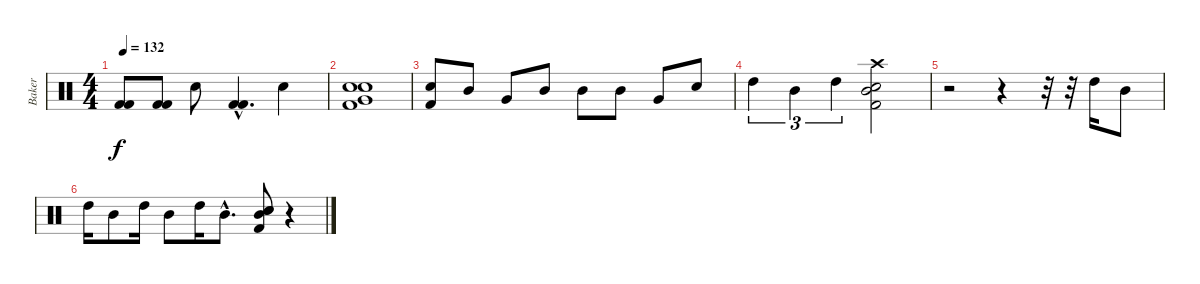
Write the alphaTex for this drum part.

\track ("Baker" "Baker") {instrument percussion}
\staff {score}
\articulation defaults
\ts (4 4)
\tempo 132
\clef neutral
\ks c
("Kick (hit) 2" "Kick (hit) 2").8{dy f} ("Kick (hit) 2" "Kick (hit) 2").8 "Snare (hit) 2".8 ("Kick (hit) 2"{hac} "Kick (hit) 2"{hac}).4{d} "Snare (hit) 2".4 |
("Very Low Tom (hit)" "Snare (hit) 2" "Electric Snare (hit)" "Kick (hit) 2").1 |
("Electric Snare (hit)" "Kick (hit) 2").8 "Mid Tom (hit)".8 "Very Low Tom (hit)".8 "Mid Tom (hit)".8 "Mid Tom (hit)".8 "Mid Tom (hit)".8 "Very Low Tom (hit)".8 "Snare (hit) 2".8 |
"High Tom (hit)".4{tu (3 2)} "Mid Tom (hit)".4{tu (3 2)} "High Tom (hit)".4{tu (3 2)} ("Snare (hit) 2" "Mid Tom (hit)" "Crash high (hit)" "Kick (hit) 2").2 |
r.2 r.4 r.32 r.32 "High Tom (hit)".16 "Mid Tom (hit)".8 |
"High Tom (hit)".16 "Mid Tom (hit)".8 "High Tom (hit)".16 "Mid Tom (hit)".8 "High Tom (hit)".16 "Mid Tom (hit)"{hac}.8{d} ("Snare (hit) 2" "Electric Snare (hit)" "Mid Tom (hit)" "Kick (hit) 2").8 r.4
